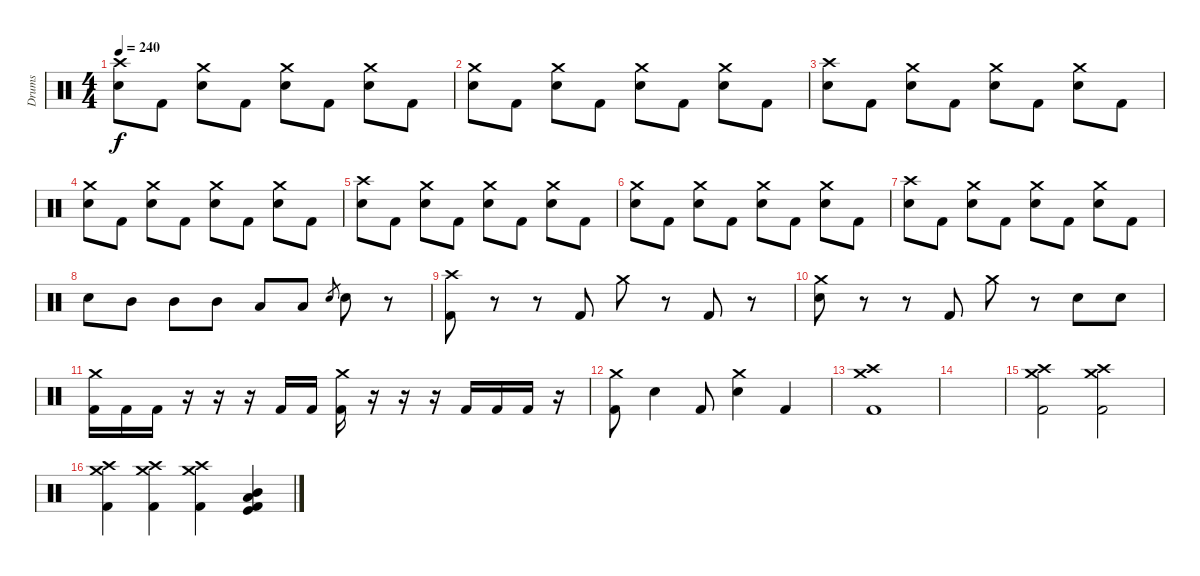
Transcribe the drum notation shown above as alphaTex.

\track ("Drums" "Drums") {instrument percussion}
\staff {score}
\articulation defaults
\ts (4 4)
\tempo 240
\clef neutral
\ks c
("Electric Snare (hit)" "Crash high (hit)").8{dy f} "Kick (hit) 2".8 ("Electric Snare (hit)" "Crash medium (hit)").8 "Kick (hit) 2".8 ("Electric Snare (hit)" "Crash medium (hit)").8 "Kick (hit) 2".8 ("Electric Snare (hit)" "Crash medium (hit)").8 "Kick (hit) 2".8 |
("Electric Snare (hit)" "Crash medium (hit)").8 "Kick (hit) 2".8 ("Electric Snare (hit)" "Crash medium (hit)").8 "Kick (hit) 2".8 ("Electric Snare (hit)" "Crash medium (hit)").8 "Kick (hit) 2".8 ("Electric Snare (hit)" "Crash medium (hit)").8 "Kick (hit) 2".8 |
("Electric Snare (hit)" "Crash high (hit)").8 "Kick (hit) 2".8 ("Electric Snare (hit)" "Crash medium (hit)").8 "Kick (hit) 2".8 ("Electric Snare (hit)" "Crash medium (hit)").8 "Kick (hit) 2".8 ("Electric Snare (hit)" "Crash medium (hit)").8 "Kick (hit) 2".8 |
("Electric Snare (hit)" "Crash medium (hit)").8 "Kick (hit) 2".8 ("Electric Snare (hit)" "Crash medium (hit)").8 "Kick (hit) 2".8 ("Electric Snare (hit)" "Crash medium (hit)").8 "Kick (hit) 2".8 ("Electric Snare (hit)" "Crash medium (hit)").8 "Kick (hit) 2".8 |
("Electric Snare (hit)" "Crash high (hit)").8 "Kick (hit) 2".8 ("Electric Snare (hit)" "Crash medium (hit)").8 "Kick (hit) 2".8 ("Electric Snare (hit)" "Crash medium (hit)").8 "Kick (hit) 2".8 ("Electric Snare (hit)" "Crash medium (hit)").8 "Kick (hit) 2".8 |
("Electric Snare (hit)" "Crash medium (hit)").8 "Kick (hit) 2".8 ("Electric Snare (hit)" "Crash medium (hit)").8 "Kick (hit) 2".8 ("Electric Snare (hit)" "Crash medium (hit)").8 "Kick (hit) 2".8 ("Electric Snare (hit)" "Crash medium (hit)").8 "Kick (hit) 2".8 |
("Electric Snare (hit)" "Crash high (hit)").8 "Kick (hit) 2".8 ("Electric Snare (hit)" "Crash medium (hit)").8 "Kick (hit) 2".8 ("Electric Snare (hit)" "Crash medium (hit)").8 "Kick (hit) 2".8 ("Electric Snare (hit)" "Crash medium (hit)").8 "Kick (hit) 2".8 |
"Electric Snare (hit)".8 "Mid Tom (hit)".8 "Mid Tom (hit)".8 "Mid Tom (hit)".8 "Low Tom (hit)".8 "Low Tom (hit)".8 "Electric Snare (hit)".8{gr} "Electric Snare (hit)".8 r.8 |
("Kick (hit) 2" "Crash high (hit)").8 r.8 r.8 "Kick (hit) 2".8 "Crash medium (hit)".8 r.8 "Kick (hit) 2".8 r.8 |
("Electric Snare (hit)" "Crash medium (hit)").8 r.8 r.8 "Kick (hit) 2".8 "Crash medium (hit)".8 r.8 "Electric Snare (hit)".8 "Electric Snare (hit)".8 |
("Kick (hit) 2" "Crash medium (hit)").16 "Kick (hit) 2".16 "Kick (hit) 2".16 r.16 r.16 r.16 "Kick (hit) 2".16 "Kick (hit) 2".16 ("Kick (hit) 2" "Crash medium (hit)").16 r.16 r.16 r.16 "Kick (hit) 2".16 "Kick (hit) 2".16 "Kick (hit) 2".16 r.16 |
("Kick (hit) 2" "Crash medium (hit)").8 "Electric Snare (hit)".4 "Kick (hit) 2".8 ("Electric Snare (hit)" "Crash medium (hit)").4 "Kick (hit) 2".4 |
("Kick (hit) 2" "Crash high (hit)" "Crash medium (hit)").1 |
|
("Kick (hit) 2" "Crash high (hit)" "Crash medium (hit)").2 ("Kick (hit) 2" "Crash high (hit)" "Crash medium (hit)").2 |
("Kick (hit) 2" "Crash high (hit)" "Crash medium (hit)").4 ("Kick (hit) 2" "Crash high (hit)" "Crash medium (hit)").4 ("Kick (hit) 2" "Crash high (hit)" "Crash medium (hit)").4 ("Kick (hit) 2" "Kick (hit)" "Low Tom (hit)" "Mid Tom (hit)").4
